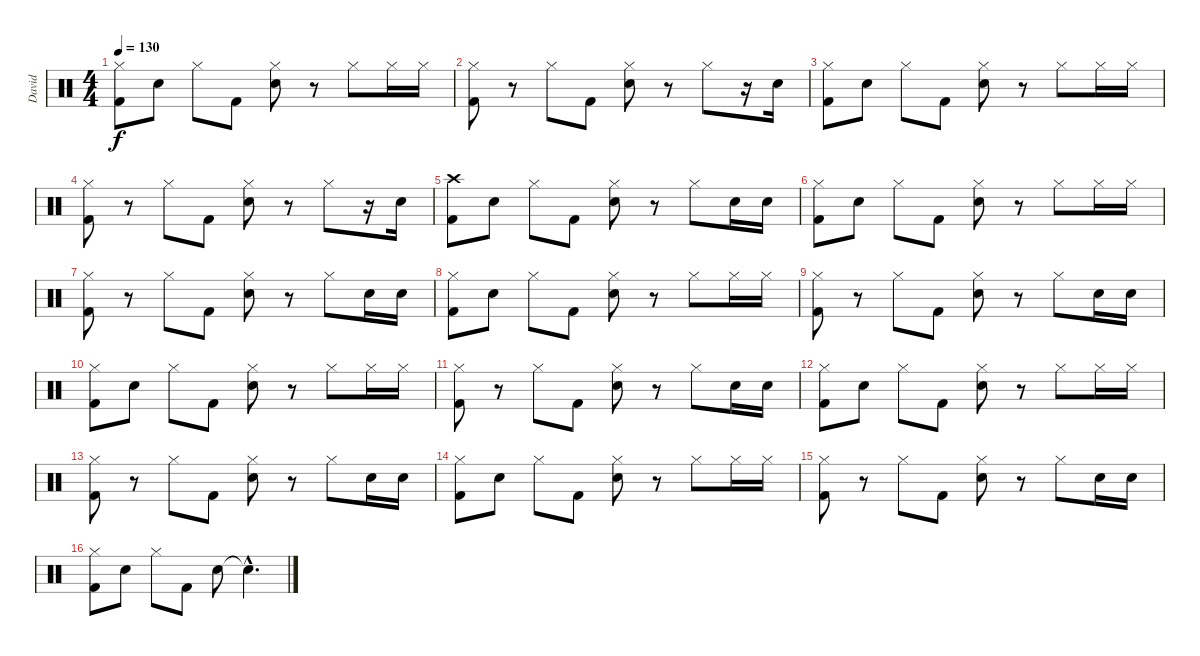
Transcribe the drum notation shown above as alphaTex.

\track ("David" "David") {instrument percussion}
\staff {score}
\articulation defaults
\ts (4 4)
\tempo 130
\clef neutral
\ks c
("Hi-Hat (closed)" "Kick (hit) 2").8{dy f} "Snare (hit) 2".8 "Hi-Hat (closed)".8 "Kick (hit) 2".8 ("Hi-Hat (closed)" "Snare (hit) 2").8 r.8 "Hi-Hat (closed)".8 "Hi-Hat (closed)".16 "Hi-Hat (closed)".16 |
("Hi-Hat (closed)" "Kick (hit) 2").8 r.8 "Hi-Hat (closed)".8 "Kick (hit) 2".8 ("Hi-Hat (closed)" "Snare (hit) 2").8 r.8 "Hi-Hat (closed)".8 r.16 "Snare (hit) 2".16 |
("Hi-Hat (closed)" "Kick (hit) 2").8 "Snare (hit) 2".8 "Hi-Hat (closed)".8 "Kick (hit) 2".8 ("Hi-Hat (closed)" "Snare (hit) 2").8 r.8 "Hi-Hat (closed)".8 "Hi-Hat (closed)".16 "Hi-Hat (closed)".16 |
("Hi-Hat (closed)" "Kick (hit) 2").8 r.8 "Hi-Hat (closed)".8 "Kick (hit) 2".8 ("Hi-Hat (closed)" "Snare (hit) 2").8 r.8 "Hi-Hat (closed)".8 r.16 "Snare (hit) 2".16 |
("Crash high (hit)" "Kick (hit) 2").8 "Snare (hit) 2".8 "Hi-Hat (closed)".8 "Kick (hit) 2".8 ("Hi-Hat (closed)" "Snare (hit) 2").8 r.8 "Hi-Hat (closed)".8 "Snare (hit) 2".16 "Snare (hit) 2".16 |
("Hi-Hat (closed)" "Kick (hit) 2").8 "Snare (hit) 2".8 "Hi-Hat (closed)".8 "Kick (hit) 2".8 ("Hi-Hat (closed)" "Snare (hit) 2").8 r.8 "Hi-Hat (closed)".8 "Hi-Hat (closed)".16 "Hi-Hat (closed)".16 |
("Hi-Hat (closed)" "Kick (hit) 2").8 r.8 "Hi-Hat (closed)".8 "Kick (hit) 2".8 ("Hi-Hat (closed)" "Snare (hit) 2").8 r.8 "Hi-Hat (closed)".8 "Snare (hit) 2".16 "Snare (hit) 2".16 |
("Hi-Hat (closed)" "Kick (hit) 2").8 "Snare (hit) 2".8 "Hi-Hat (closed)".8 "Kick (hit) 2".8 ("Hi-Hat (closed)" "Snare (hit) 2").8 r.8 "Hi-Hat (closed)".8 "Hi-Hat (closed)".16 "Hi-Hat (closed)".16 |
("Hi-Hat (closed)" "Kick (hit) 2").8 r.8 "Hi-Hat (closed)".8 "Kick (hit) 2".8 ("Hi-Hat (closed)" "Snare (hit) 2").8 r.8 "Hi-Hat (closed)".8 "Snare (hit) 2".16 "Snare (hit) 2".16 |
("Hi-Hat (closed)" "Kick (hit) 2").8 "Snare (hit) 2".8 "Hi-Hat (closed)".8 "Kick (hit) 2".8 ("Hi-Hat (closed)" "Snare (hit) 2").8 r.8 "Hi-Hat (closed)".8 "Hi-Hat (closed)".16 "Hi-Hat (closed)".16 |
("Hi-Hat (closed)" "Kick (hit) 2").8 r.8 "Hi-Hat (closed)".8 "Kick (hit) 2".8 ("Hi-Hat (closed)" "Snare (hit) 2").8 r.8 "Hi-Hat (closed)".8 "Snare (hit) 2".16 "Snare (hit) 2".16 |
("Hi-Hat (closed)" "Kick (hit) 2").8 "Snare (hit) 2".8 "Hi-Hat (closed)".8 "Kick (hit) 2".8 ("Hi-Hat (closed)" "Snare (hit) 2").8 r.8 "Hi-Hat (closed)".8 "Hi-Hat (closed)".16 "Hi-Hat (closed)".16 |
("Hi-Hat (closed)" "Kick (hit) 2").8 r.8 "Hi-Hat (closed)".8 "Kick (hit) 2".8 ("Hi-Hat (closed)" "Snare (hit) 2").8 r.8 "Hi-Hat (closed)".8 "Snare (hit) 2".16 "Snare (hit) 2".16 |
("Hi-Hat (closed)" "Kick (hit) 2").8 "Snare (hit) 2".8 "Hi-Hat (closed)".8 "Kick (hit) 2".8 ("Hi-Hat (closed)" "Snare (hit) 2").8 r.8 "Hi-Hat (closed)".8 "Hi-Hat (closed)".16 "Hi-Hat (closed)".16 |
("Hi-Hat (closed)" "Kick (hit) 2").8 r.8 "Hi-Hat (closed)".8 "Kick (hit) 2".8 ("Hi-Hat (closed)" "Snare (hit) 2").8 r.8 "Hi-Hat (closed)".8 "Snare (hit) 2".16 "Snare (hit) 2".16 |
("Hi-Hat (closed)" "Kick (hit) 2").8 "Snare (hit) 2".8 "Hi-Hat (closed)".8 "Kick (hit) 2".8 "Snare (hit) 2".8 "Snare (hit)"{hac t}.4{d}
